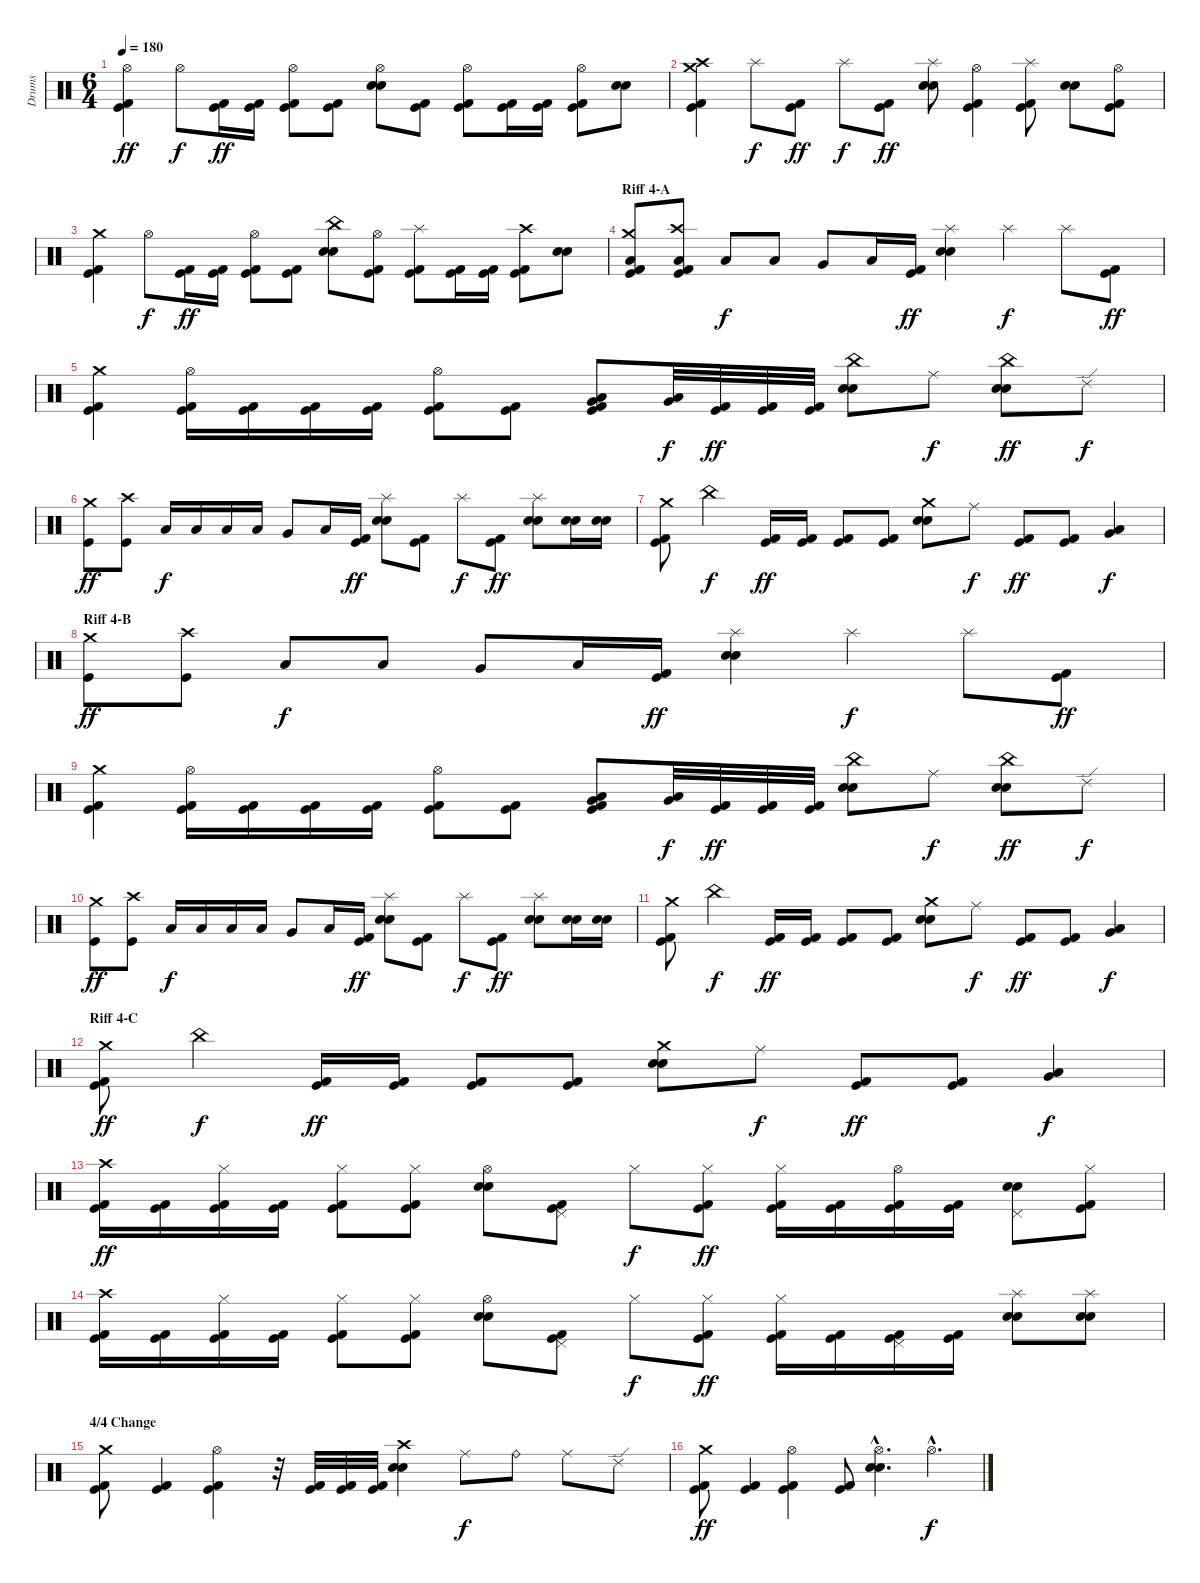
\track ("Drums" "Drums") {instrument percussion}
\staff {score}
\articulation defaults
\ts (6 4)
\tempo 180
\clef neutral
\ks c
("Kick (hit)" "Kick (hit) 2" "Hi-Hat (open)").4{dy ff} "Hi-Hat (open)".8{dy f} ("Kick (hit)" "Kick (hit) 2").16{dy ff} ("Kick (hit)" "Kick (hit) 2").16 ("Kick (hit)" "Kick (hit) 2" "Hi-Hat (open)").8 ("Kick (hit)" "Kick (hit) 2").8 ("Electric Snare (hit)" "Electric Snare (hit)" "Hi-Hat (open)").8 ("Kick (hit)" "Kick (hit) 2").8 ("Kick (hit)" "Kick (hit) 2" "Hi-Hat (open)").8 ("Kick (hit)" "Kick (hit) 2").16 ("Kick (hit)" "Kick (hit) 2").16 ("Kick (hit)" "Kick (hit) 2" "Hi-Hat (open)").8 ("Electric Snare (hit)" "Electric Snare (hit)").8 |
("Kick (hit)" "Kick (hit) 2" "Crash high (hit)" "Crash medium (hit)").4 "Splash (hit)".8{dy f} ("Kick (hit)" "Kick (hit) 2").8{dy ff} "Splash (hit)".8{dy f} ("Kick (hit)" "Kick (hit) 2").8{dy ff} ("Electric Snare (hit)" "Electric Snare (hit)" "Splash (hit)").8 ("Kick (hit)" "Kick (hit) 2" "Hi-Hat (open)").4 ("Kick (hit)" "Kick (hit) 2" "Splash (hit)").8 ("Electric Snare (hit)" "Electric Snare (hit)").8 ("Kick (hit)" "Kick (hit) 2" "Hi-Hat (open)").8 |
("Kick (hit)" "Kick (hit) 2" "Crash medium (hit)").4 "Hi-Hat (open)".8{dy f} ("Kick (hit)" "Kick (hit) 2").16{dy ff} ("Kick (hit)" "Kick (hit) 2").16 ("Kick (hit)" "Kick (hit) 2" "Hi-Hat (open)").8 ("Kick (hit)" "Kick (hit) 2").8 ("Electric Snare (hit)" "Electric Snare (hit)" "China (hit)").8 ("Kick (hit)" "Kick (hit) 2" "Hi-Hat (open)").8 ("Kick (hit)" "Kick (hit) 2" "Splash (hit)").8 ("Kick (hit)" "Kick (hit) 2").16 ("Kick (hit)" "Kick (hit) 2").16 ("Kick (hit)" "Kick (hit) 2" "Crash high (hit)").8 ("Electric Snare (hit)" "Electric Snare (hit)").8 |
\section ("" "Riff 4-A")
("Kick (hit)" "Kick (hit) 2" "Low Floor Tom (hit)" "Crash medium (hit)").8 ("Kick (hit)" "Kick (hit) 2" "Low Floor Tom (hit)" "Crash high (hit)").8 "Low Tom (hit)".8{dy f} "Low Tom (hit)".8 "Very Low Tom (hit)".8 "Low Floor Tom (hit)".16 ("Kick (hit)" "Kick (hit) 2").16{dy ff} ("Electric Snare (hit)" "Electric Snare (hit)" "Splash (hit)").4 "Splash (hit)".4{dy f} "Splash (hit)".8 ("Kick (hit)" "Kick (hit) 2").8{dy ff} |
("Kick (hit)" "Kick (hit) 2" "Crash medium (hit)").4 ("Kick (hit)" "Kick (hit) 2" "Hi-Hat (open)").16 ("Kick (hit)" "Kick (hit) 2").16 ("Kick (hit)" "Kick (hit) 2").16 ("Kick (hit)" "Kick (hit) 2").16 ("Kick (hit)" "Kick (hit) 2" "Hi-Hat (open)").8 ("Kick (hit)" "Kick (hit) 2").8 ("Kick (hit)" "Kick (hit) 2" "Low Floor Tom (hit)" "Very Low Tom (hit)").8 ("Low Floor Tom (hit)" "Very Low Tom (hit)").32{dy f} ("Kick (hit)" "Kick (hit) 2").32{dy ff} ("Kick (hit)" "Kick (hit) 2").32 ("Kick (hit)" "Kick (hit) 2").32 ("Electric Snare (hit)" "Electric Snare (hit)" "China (hit)").8 "Ride (middle)".8{dy f} ("Electric Snare (hit)" "Electric Snare (hit)" "China (hit)").8{dy ff} "Ride (edge) 2".8{dy f} |
("Kick (hit)" "Crash medium (hit)").8{dy ff} ("Kick (hit)" "Crash high (hit)").8 "Low Tom (hit)".16{dy f} "Low Tom (hit)".16 "Low Tom (hit)".16 "Low Tom (hit)".16 "Very Low Tom (hit)".8 "Low Floor Tom (hit)".16 ("Kick (hit)" "Kick (hit) 2").16{dy ff} ("Electric Snare (hit)" "Electric Snare (hit)" "Splash (hit)").8 ("Kick (hit)" "Kick (hit) 2").8 "Splash (hit)".8{dy f} ("Kick (hit)" "Kick (hit) 2").8{dy ff} ("Electric Snare (hit)" "Electric Snare (hit)" "Splash (hit)").8 ("Electric Snare (hit)" "Electric Snare (hit)").16 ("Electric Snare (hit)" "Electric Snare (hit)").16 |
("Kick (hit)" "Kick (hit) 2" "Crash medium (hit)").8 "China (hit)".4{dy f} ("Kick (hit)" "Kick (hit) 2").16{dy ff} ("Kick (hit)" "Kick (hit) 2").16 ("Kick (hit)" "Kick (hit) 2").8 ("Kick (hit)" "Kick (hit) 2").8 ("Electric Snare (hit)" "Electric Snare (hit)" "Crash medium (hit)").8 "Ride (middle)".8{dy f} ("Kick (hit)" "Kick (hit) 2").8{dy ff} ("Kick (hit)" "Kick (hit) 2").8 ("Very Low Tom (hit)" "Low Tom (hit)").4{dy f} |
\section ("" "Riff 4-B")
("Kick (hit)" "Crash medium (hit)").8{dy ff} ("Kick (hit)" "Crash high (hit)").8 "Low Tom (hit)".8{dy f} "Low Tom (hit)".8 "Very Low Tom (hit)".8 "Low Floor Tom (hit)".16 ("Kick (hit)" "Kick (hit) 2").16{dy ff} ("Electric Snare (hit)" "Electric Snare (hit)" "Splash (hit)").4 "Splash (hit)".4{dy f} "Splash (hit)".8 ("Kick (hit)" "Kick (hit) 2").8{dy ff} |
("Kick (hit)" "Kick (hit) 2" "Crash medium (hit)").4 ("Kick (hit)" "Kick (hit) 2" "Hi-Hat (open)").16 ("Kick (hit)" "Kick (hit) 2").16 ("Kick (hit)" "Kick (hit) 2").16 ("Kick (hit)" "Kick (hit) 2").16 ("Kick (hit)" "Kick (hit) 2" "Hi-Hat (open)").8 ("Kick (hit)" "Kick (hit) 2").8 ("Kick (hit)" "Kick (hit) 2" "Low Floor Tom (hit)" "Very Low Tom (hit)").8 ("Low Floor Tom (hit)" "Very Low Tom (hit)").32{dy f} ("Kick (hit)" "Kick (hit) 2").32{dy ff} ("Kick (hit)" "Kick (hit) 2").32 ("Kick (hit)" "Kick (hit) 2").32 ("Electric Snare (hit)" "Electric Snare (hit)" "China (hit)").8 "Ride (middle)".8{dy f} ("Electric Snare (hit)" "Electric Snare (hit)" "China (hit)").8{dy ff} "Ride (edge) 2".8{dy f} |
("Kick (hit)" "Crash medium (hit)").8{dy ff} ("Kick (hit)" "Crash high (hit)").8 "Low Tom (hit)".16{dy f} "Low Tom (hit)".16 "Low Tom (hit)".16 "Low Tom (hit)".16 "Very Low Tom (hit)".8 "Low Floor Tom (hit)".16 ("Kick (hit)" "Kick (hit) 2").16{dy ff} ("Electric Snare (hit)" "Electric Snare (hit)" "Splash (hit)").8 ("Kick (hit)" "Kick (hit) 2").8 "Splash (hit)".8{dy f} ("Kick (hit)" "Kick (hit) 2").8{dy ff} ("Electric Snare (hit)" "Electric Snare (hit)" "Splash (hit)").8 ("Electric Snare (hit)" "Electric Snare (hit)").16 ("Electric Snare (hit)" "Electric Snare (hit)").16 |
("Kick (hit)" "Kick (hit) 2" "Crash medium (hit)").8 "China (hit)".4{dy f} ("Kick (hit)" "Kick (hit) 2").16{dy ff} ("Kick (hit)" "Kick (hit) 2").16 ("Kick (hit)" "Kick (hit) 2").8 ("Kick (hit)" "Kick (hit) 2").8 ("Electric Snare (hit)" "Electric Snare (hit)" "Crash medium (hit)").8 "Ride (middle)".8{dy f} ("Kick (hit)" "Kick (hit) 2").8{dy ff} ("Kick (hit)" "Kick (hit) 2").8 ("Very Low Tom (hit)" "Low Tom (hit)").4{dy f} |
\section ("" "Riff 4-C")
("Kick (hit)" "Kick (hit) 2" "Crash medium (hit)").8{dy ff} "China (hit)".4{dy f} ("Kick (hit)" "Kick (hit) 2").16{dy ff} ("Kick (hit)" "Kick (hit) 2").16 ("Kick (hit)" "Kick (hit) 2").8 ("Kick (hit)" "Kick (hit) 2").8 ("Electric Snare (hit)" "Electric Snare (hit)" "Crash medium (hit)").8 "Ride (middle)".8{dy f} ("Kick (hit)" "Kick (hit) 2").8{dy ff} ("Kick (hit)" "Kick (hit) 2").8 ("Very Low Tom (hit)" "Low Tom (hit)").4{dy f} |
("Kick (hit)" "Kick (hit) 2" "Crash high (hit)").16{dy ff} ("Kick (hit)" "Kick (hit) 2").16 ("Kick (hit)" "Kick (hit) 2" "Hi-Hat (closed)").16 ("Kick (hit)" "Kick (hit) 2").16 ("Kick (hit)" "Kick (hit) 2" "Hi-Hat (closed)").8 ("Kick (hit)" "Kick (hit) 2" "Hi-Hat (closed)").8 ("Electric Snare (hit)" "Electric Snare (hit)" "Hi-Hat (open)").8 ("Kick (hit)" "Kick (hit) 2" "Pedal Hi-Hat (hit)").8 "Hi-Hat (closed)".8{dy f} ("Kick (hit)" "Kick (hit) 2" "Hi-Hat (closed)").8{dy ff} ("Kick (hit)" "Kick (hit) 2" "Hi-Hat (closed)").16 ("Kick (hit)" "Kick (hit) 2").16 ("Kick (hit)" "Kick (hit) 2" "Hi-Hat (open)").16 ("Kick (hit)" "Kick (hit) 2").16 ("Electric Snare (hit)" "Electric Snare (hit)" "Pedal Hi-Hat (hit)").8 ("Kick (hit)" "Kick (hit) 2" "Hi-Hat (closed)").8 |
("Kick (hit)" "Kick (hit) 2" "Crash high (hit)").16 ("Kick (hit)" "Kick (hit) 2").16 ("Kick (hit)" "Kick (hit) 2" "Hi-Hat (closed)").16 ("Kick (hit)" "Kick (hit) 2").16 ("Kick (hit)" "Kick (hit) 2" "Hi-Hat (closed)").8 ("Kick (hit)" "Kick (hit) 2" "Hi-Hat (closed)").8 ("Electric Snare (hit)" "Electric Snare (hit)" "Hi-Hat (open)").8 ("Kick (hit)" "Kick (hit) 2" "Pedal Hi-Hat (hit)").8 "Hi-Hat (closed)".8{dy f} ("Kick (hit)" "Kick (hit) 2" "Hi-Hat (closed)").8{dy ff} ("Kick (hit)" "Kick (hit) 2" "Hi-Hat (closed)").16 ("Kick (hit)" "Kick (hit) 2").16 ("Kick (hit)" "Kick (hit) 2" "Pedal Hi-Hat (hit)").16 ("Kick (hit)" "Kick (hit) 2").16 ("Electric Snare (hit)" "Electric Snare (hit)" "Splash (hit)").8 ("Electric Snare (hit)" "Electric Snare (hit)" "Splash (hit)").8 |
\section ("" "4/4 Change")
("Kick (hit)" "Kick (hit) 2" "Crash medium (hit)").8 ("Kick (hit)" "Kick (hit) 2").4 ("Kick (hit)" "Kick (hit) 2" "Hi-Hat (open)").4 r.32 ("Kick (hit)" "Kick (hit) 2").32 ("Kick (hit)" "Kick (hit) 2").32 ("Kick (hit)" "Kick (hit) 2").32 ("Electric Snare (hit)" "Electric Snare (hit)" "Crash high (hit)").4 "Ride (middle)".8{dy f} "Ride (bell)".8 "Ride (middle)".8 "Ride (edge) 2".8 |
("Kick (hit)" "Kick (hit) 2" "Crash medium (hit)").8{dy ff} ("Kick (hit)" "Kick (hit) 2").4 ("Kick (hit)" "Kick (hit) 2" "Hi-Hat (open)").4 ("Kick (hit)" "Kick (hit) 2").8 ("Electric Snare (hit)"{hac} "Electric Snare (hit)"{hac} "Hi-Hat (open)"{hac}).4{d} "Hi-Hat (open)"{hac}.4{d dy f}
